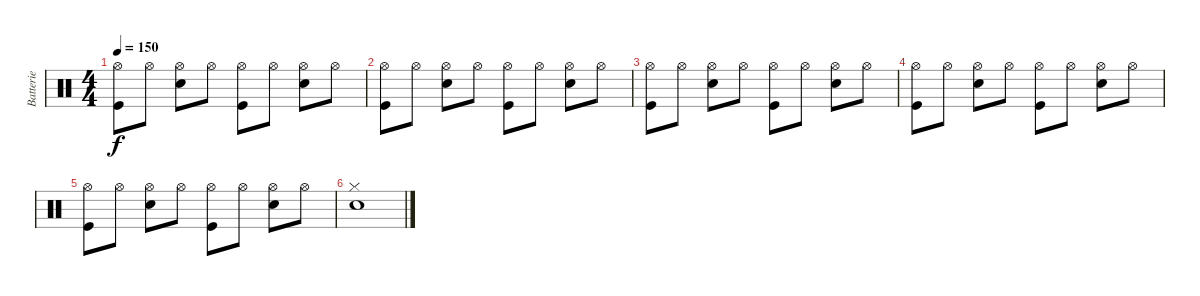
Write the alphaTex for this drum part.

\track ("Batterie" "Batterie") {instrument percussion}
\staff {score}
\articulation defaults
\ts (4 4)
\tempo 150
\clef neutral
\ks c
("Hi-Hat (open)" "Kick (hit)").8{dy f} "Hi-Hat (open)".8 ("Hi-Hat (open)" "Snare (hit) 2").8 "Hi-Hat (open)".8 ("Hi-Hat (open)" "Kick (hit)").8 "Hi-Hat (open)".8 ("Hi-Hat (open)" "Snare (hit) 2").8 "Hi-Hat (open)".8 |
("Hi-Hat (open)" "Kick (hit)").8 "Hi-Hat (open)".8 ("Hi-Hat (open)" "Snare (hit) 2").8 "Hi-Hat (open)".8 ("Hi-Hat (open)" "Kick (hit)").8 "Hi-Hat (open)".8 ("Hi-Hat (open)" "Snare (hit) 2").8 "Hi-Hat (open)".8 |
("Hi-Hat (open)" "Kick (hit)").8 "Hi-Hat (open)".8 ("Hi-Hat (open)" "Snare (hit) 2").8 "Hi-Hat (open)".8 ("Hi-Hat (open)" "Kick (hit)").8 "Hi-Hat (open)".8 ("Hi-Hat (open)" "Snare (hit) 2").8 "Hi-Hat (open)".8 |
("Hi-Hat (open)" "Kick (hit)").8 "Hi-Hat (open)".8 ("Hi-Hat (open)" "Snare (hit) 2").8 "Hi-Hat (open)".8 ("Hi-Hat (open)" "Kick (hit)").8 "Hi-Hat (open)".8 ("Hi-Hat (open)" "Snare (hit) 2").8 "Hi-Hat (open)".8 |
("Hi-Hat (open)" "Kick (hit)").8 "Hi-Hat (open)".8 ("Hi-Hat (open)" "Snare (hit) 2").8 "Hi-Hat (open)".8 ("Hi-Hat (open)" "Kick (hit)").8 "Hi-Hat (open)".8 ("Hi-Hat (open)" "Snare (hit) 2").8 "Hi-Hat (open)".8 |
("Hi-Hat (closed)" "Snare (hit) 2").1
